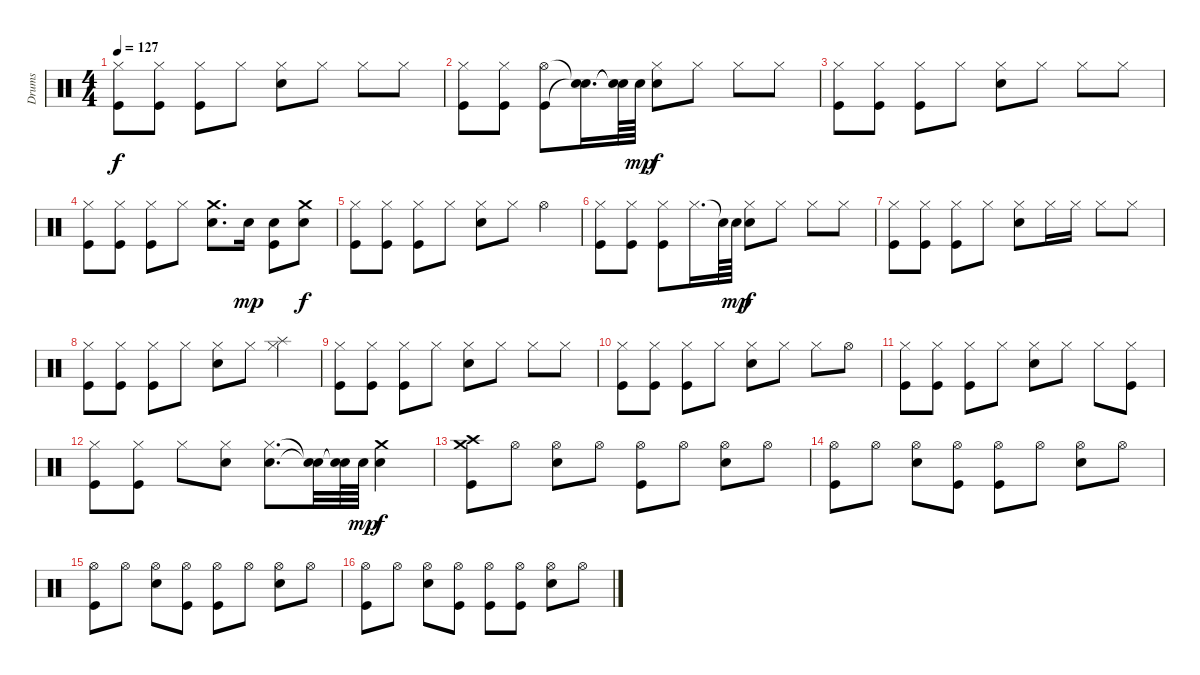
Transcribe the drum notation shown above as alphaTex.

\track ("Drums" "Drums") {instrument percussion}
\staff {score}
\articulation defaults
\ts (4 4)
\tempo 127
\clef neutral
\ks c
("Hi-Hat (closed)" "Kick (hit)").8{dy f} ("Hi-Hat (closed)" "Kick (hit)").8 ("Hi-Hat (closed)" "Kick (hit)").8 "Hi-Hat (closed)".8 ("Electric Snare (hit)" "Hi-Hat (closed)").8 "Hi-Hat (closed)".8 "Hi-Hat (closed)".8 "Hi-Hat (closed)".8 |
("Hi-Hat (closed)" "Kick (hit)").8 ("Hi-Hat (closed)" "Kick (hit)").8 ("Hi-Hat (open)" "Kick (hit)").8 ("Snare (hit)"{t} "Snare (hit)"{t}).16{d} ("Snare (hit)"{t} "Snare (hit)"{t}).64 "Electric Snare (hit)".64{dy mp} ("Electric Snare (hit)" "Hi-Hat (closed)").8{dy f} "Hi-Hat (closed)".8 "Hi-Hat (closed)".8 "Hi-Hat (closed)".8 |
("Hi-Hat (closed)" "Kick (hit)").8 ("Hi-Hat (closed)" "Kick (hit)").8 ("Hi-Hat (closed)" "Kick (hit)").8 "Hi-Hat (closed)".8 ("Electric Snare (hit)" "Hi-Hat (closed)").8 "Hi-Hat (closed)".8 "Hi-Hat (closed)".8 "Hi-Hat (closed)".8 |
("Hi-Hat (closed)" "Kick (hit)").8 ("Hi-Hat (closed)" "Kick (hit)").8 ("Hi-Hat (closed)" "Kick (hit)").8 "Hi-Hat (closed)".8 ("Electric Snare (hit)" "Crash medium (hit)").8{d} "Electric Snare (hit)".16{dy mp} ("Electric Snare (hit)" "Kick (hit)").8 ("Electric Snare (hit)" "Crash medium (hit)").8{dy f} |
("Hi-Hat (closed)" "Kick (hit)").8 ("Hi-Hat (closed)" "Kick (hit)").8 ("Hi-Hat (closed)" "Kick (hit)").8 "Hi-Hat (closed)".8 ("Electric Snare (hit)" "Hi-Hat (closed)").8 "Hi-Hat (closed)".8 "Hi-Hat (open)".4 |
("Hi-Hat (closed)" "Kick (hit)").8 ("Hi-Hat (closed)" "Kick (hit)").8 ("Hi-Hat (closed)" "Kick (hit)").8 "Hi-Hat (closed)".16{d} "Snare (hit)"{t}.64 "Electric Snare (hit)".64{dy mp} ("Electric Snare (hit)" "Hi-Hat (closed)").8{dy f} "Hi-Hat (closed)".8 "Hi-Hat (closed)".8 "Hi-Hat (closed)".8 |
("Hi-Hat (closed)" "Kick (hit)").8 ("Hi-Hat (closed)" "Kick (hit)").8 ("Hi-Hat (closed)" "Kick (hit)").8 "Hi-Hat (closed)".8 ("Electric Snare (hit)" "Hi-Hat (closed)").8 "Hi-Hat (closed)".16 "Hi-Hat (closed)".16 "Hi-Hat (closed)".8 "Hi-Hat (closed)".8 |
("Hi-Hat (closed)" "Kick (hit)").8 ("Hi-Hat (closed)" "Kick (hit)").8 ("Hi-Hat (closed)" "Kick (hit)").8 "Hi-Hat (closed)".8 ("Electric Snare (hit)" "Hi-Hat (closed)").8 "Hi-Hat (closed)".8 ("Hi-Hat (closed)" "Splash (hit)").4 |
("Hi-Hat (closed)" "Kick (hit)").8 ("Hi-Hat (closed)" "Kick (hit)").8 ("Hi-Hat (closed)" "Kick (hit)").8 "Hi-Hat (closed)".8 ("Electric Snare (hit)" "Hi-Hat (closed)").8 "Hi-Hat (closed)".8 "Hi-Hat (closed)".8 "Hi-Hat (closed)".8 |
("Hi-Hat (closed)" "Kick (hit)").8 ("Hi-Hat (closed)" "Kick (hit)").8 ("Hi-Hat (closed)" "Kick (hit)").8 "Hi-Hat (closed)".8 ("Electric Snare (hit)" "Hi-Hat (closed)").8 "Hi-Hat (closed)".8 "Hi-Hat (closed)".8 "Hi-Hat (open)".8 |
("Hi-Hat (closed)" "Kick (hit)").8 ("Hi-Hat (closed)" "Kick (hit)").8 ("Hi-Hat (closed)" "Kick (hit)").8 "Hi-Hat (closed)".8 ("Electric Snare (hit)" "Hi-Hat (closed)").8 "Hi-Hat (closed)".8 "Hi-Hat (closed)".8 ("Hi-Hat (closed)" "Kick (hit)").8 |
("Hi-Hat (closed)" "Kick (hit)").8 ("Hi-Hat (closed)" "Kick (hit)").8 "Hi-Hat (closed)".8 ("Electric Snare (hit)" "Hi-Hat (closed)").8 ("Electric Snare (hit)" "Hi-Hat (closed)").8{d} ("Snare (hit)"{t} "Snare (hit)"{t}).32 ("Snare (hit)"{t} "Snare (hit)"{t}).64 "Electric Snare (hit)".64{dy mp} ("Electric Snare (hit)" "Crash medium (hit)").4{dy f} |
("Crash medium (hit)" "Crash high (hit)" "Kick (hit)").8 "Hi-Hat (open)".8 ("Electric Snare (hit)" "Hi-Hat (open)").8 "Hi-Hat (open)".8 ("Hi-Hat (open)" "Kick (hit)").8 "Hi-Hat (open)".8 ("Electric Snare (hit)" "Hi-Hat (open)").8 "Hi-Hat (open)".8 |
("Hi-Hat (open)" "Kick (hit)").8 "Hi-Hat (open)".8 ("Electric Snare (hit)" "Hi-Hat (open)").8 ("Hi-Hat (open)" "Kick (hit)").8 ("Hi-Hat (open)" "Kick (hit)").8 "Hi-Hat (open)".8 ("Electric Snare (hit)" "Hi-Hat (open)").8 "Hi-Hat (open)".8 |
("Hi-Hat (open)" "Kick (hit)").8 "Hi-Hat (open)".8 ("Electric Snare (hit)" "Hi-Hat (open)").8 ("Hi-Hat (open)" "Kick (hit)").8 ("Hi-Hat (open)" "Kick (hit)").8 "Hi-Hat (open)".8 ("Electric Snare (hit)" "Hi-Hat (open)").8 "Hi-Hat (open)".8 |
("Hi-Hat (open)" "Kick (hit)").8 "Hi-Hat (open)".8 ("Electric Snare (hit)" "Hi-Hat (open)").8 ("Hi-Hat (open)" "Kick (hit)").8 ("Hi-Hat (open)" "Kick (hit)").8 ("Hi-Hat (open)" "Kick (hit)").8 ("Electric Snare (hit)" "Hi-Hat (open)").8 "Hi-Hat (open)".8
